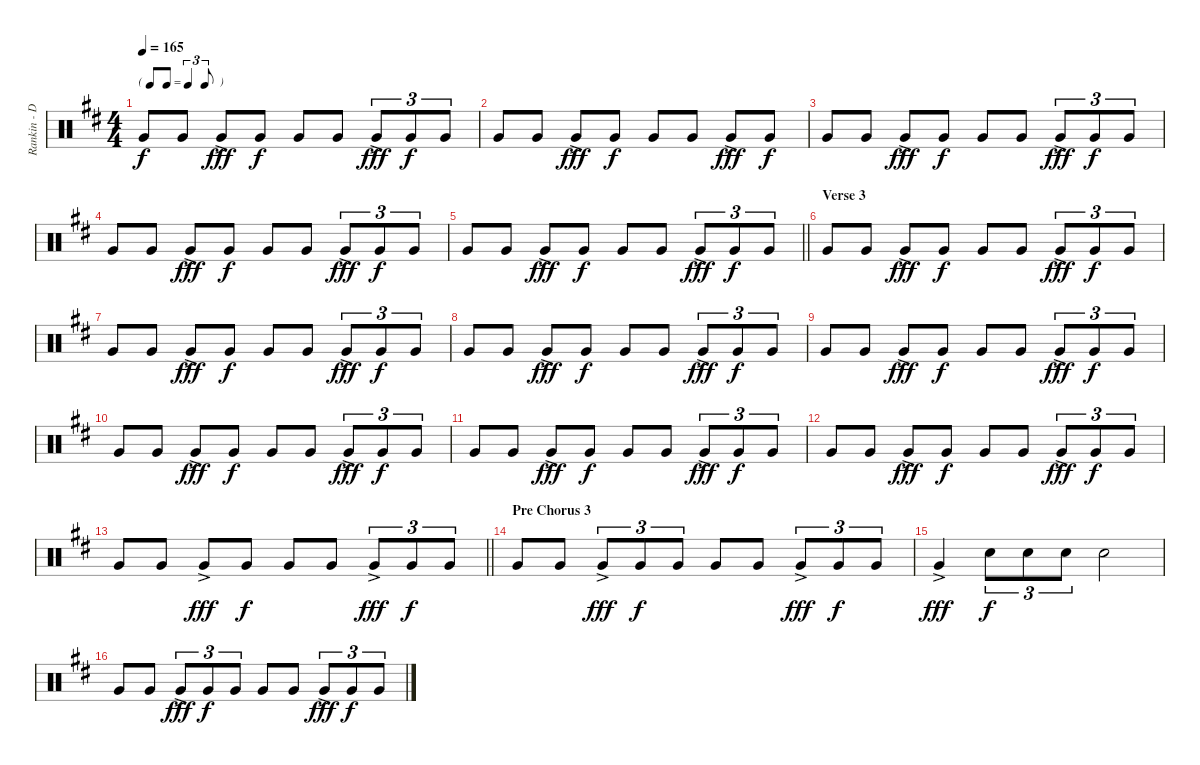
\track ("Rankin - Drums" "Rankin - D") {instrument percussion}
\staff {score}
\articulation defaults
\ts (4 4)
\tf triplet8th
\tempo 165
\clef neutral
\ks d "Very Low Tom (hit)".8{dy f} "Very Low Tom (hit)".8 "Very Low Tom (hit)"{ac}.8{dy fff} "Very Low Tom (hit)".8{dy f} "Very Low Tom (hit)".8 "Very Low Tom (hit)".8 "Very Low Tom (hit)"{ac}.8{tu (3 2) dy fff} "Very Low Tom (hit)".8{tu (3 2) dy f} "Very Low Tom (hit)".8{tu (3 2)}
|
"Very Low Tom (hit)".8 "Very Low Tom (hit)".8 "Very Low Tom (hit)"{ac}.8{dy fff} "Very Low Tom (hit)".8{dy f} "Very Low Tom (hit)".8 "Very Low Tom (hit)".8 "Very Low Tom (hit)"{ac}.8{dy fff} "Very Low Tom (hit)".8{dy f} |
"Very Low Tom (hit)".8 "Very Low Tom (hit)".8 "Very Low Tom (hit)"{ac}.8{dy fff} "Very Low Tom (hit)".8{dy f} "Very Low Tom (hit)".8 "Very Low Tom (hit)".8 "Very Low Tom (hit)"{ac}.8{tu (3 2) dy fff} "Very Low Tom (hit)".8{tu (3 2) dy f} "Very Low Tom (hit)".8{tu (3 2)} |
"Very Low Tom (hit)".8 "Very Low Tom (hit)".8 "Very Low Tom (hit)"{ac}.8{dy fff} "Very Low Tom (hit)".8{dy f} "Very Low Tom (hit)".8 "Very Low Tom (hit)".8 "Very Low Tom (hit)"{ac}.8{tu (3 2) dy fff} "Very Low Tom (hit)".8{tu (3 2) dy f} "Very Low Tom (hit)".8{tu (3 2)} |
\barLineRight lightlight "Very Low Tom (hit)".8 "Very Low Tom (hit)".8 "Very Low Tom (hit)"{ac}.8{dy fff} "Very Low Tom (hit)".8{dy f} "Very Low Tom (hit)".8 "Very Low Tom (hit)".8 "Very Low Tom (hit)"{ac}.8{tu (3 2) dy fff} "Very Low Tom (hit)".8{tu (3 2) dy f} "Very Low Tom (hit)".8{tu (3 2)}
|
\section ("" "Verse 3")
"Very Low Tom (hit)".8 "Very Low Tom (hit)".8 "Very Low Tom (hit)"{ac}.8{dy fff} "Very Low Tom (hit)".8{dy f} "Very Low Tom (hit)".8 "Very Low Tom (hit)".8 "Very Low Tom (hit)"{ac}.8{tu (3 2) dy fff} "Very Low Tom (hit)".8{tu (3 2) dy f} "Very Low Tom (hit)".8{tu (3 2)} |
"Very Low Tom (hit)".8 "Very Low Tom (hit)".8 "Very Low Tom (hit)"{ac}.8{dy fff} "Very Low Tom (hit)".8{dy f} "Very Low Tom (hit)".8 "Very Low Tom (hit)".8 "Very Low Tom (hit)"{ac}.8{tu (3 2) dy fff} "Very Low Tom (hit)".8{tu (3 2) dy f} "Very Low Tom (hit)".8{tu (3 2)} |
"Very Low Tom (hit)".8 "Very Low Tom (hit)".8 "Very Low Tom (hit)"{ac}.8{dy fff} "Very Low Tom (hit)".8{dy f} "Very Low Tom (hit)".8 "Very Low Tom (hit)".8 "Very Low Tom (hit)"{ac}.8{tu (3 2) dy fff} "Very Low Tom (hit)".8{tu (3 2) dy f} "Very Low Tom (hit)".8{tu (3 2)} |
"Very Low Tom (hit)".8 "Very Low Tom (hit)".8 "Very Low Tom (hit)"{ac}.8{dy fff} "Very Low Tom (hit)".8{dy f} "Very Low Tom (hit)".8 "Very Low Tom (hit)".8 "Very Low Tom (hit)"{ac}.8{tu (3 2) dy fff} "Very Low Tom (hit)".8{tu (3 2) dy f} "Very Low Tom (hit)".8{tu (3 2)} |
"Very Low Tom (hit)".8 "Very Low Tom (hit)".8 "Very Low Tom (hit)"{ac}.8{dy fff} "Very Low Tom (hit)".8{dy f} "Very Low Tom (hit)".8 "Very Low Tom (hit)".8 "Very Low Tom (hit)"{ac}.8{tu (3 2) dy fff} "Very Low Tom (hit)".8{tu (3 2) dy f} "Very Low Tom (hit)".8{tu (3 2)} |
"Very Low Tom (hit)".8 "Very Low Tom (hit)".8 "Very Low Tom (hit)"{ac}.8{dy fff} "Very Low Tom (hit)".8{dy f} "Very Low Tom (hit)".8 "Very Low Tom (hit)".8 "Very Low Tom (hit)"{ac}.8{tu (3 2) dy fff} "Very Low Tom (hit)".8{tu (3 2) dy f} "Very Low Tom (hit)".8{tu (3 2)} |
"Very Low Tom (hit)".8 "Very Low Tom (hit)".8 "Very Low Tom (hit)"{ac}.8{dy fff} "Very Low Tom (hit)".8{dy f} "Very Low Tom (hit)".8 "Very Low Tom (hit)".8 "Very Low Tom (hit)"{ac}.8{tu (3 2) dy fff} "Very Low Tom (hit)".8{tu (3 2) dy f} "Very Low Tom (hit)".8{tu (3 2)} |
\barLineRight lightlight "Very Low Tom (hit)".8 "Very Low Tom (hit)".8 "Very Low Tom (hit)"{ac}.8{dy fff} "Very Low Tom (hit)".8{dy f} "Very Low Tom (hit)".8 "Very Low Tom (hit)".8 "Very Low Tom (hit)"{ac}.8{tu (3 2) dy fff} "Very Low Tom (hit)".8{tu (3 2) dy f} "Very Low Tom (hit)".8{tu (3 2)}
|
\section ("" "Pre Chorus 3")
"Very Low Tom (hit)".8 "Very Low Tom (hit)".8 "Very Low Tom (hit)"{ac}.8{tu (3 2) dy fff} "Very Low Tom (hit)".8{tu (3 2) dy f} "Very Low Tom (hit)".8{tu (3 2)} "Very Low Tom (hit)".8 "Very Low Tom (hit)".8 "Very Low Tom (hit)"{ac}.8{tu (3 2) dy fff} "Very Low Tom (hit)".8{tu (3 2) dy f} "Very Low Tom (hit)".8{tu (3 2)} |
"Very Low Tom (hit)"{ac}.4{dy fff} "Electric Snare (hit)".8{tu (3 2) dy f} "Electric Snare (hit)".8{tu (3 2)} "Electric Snare (hit)".8{tu (3 2)} "Electric Snare (hit)".2 |
"Very Low Tom (hit)".8 "Very Low Tom (hit)".8 "Very Low Tom (hit)"{ac}.8{tu (3 2) dy fff} "Very Low Tom (hit)".8{tu (3 2) dy f} "Very Low Tom (hit)".8{tu (3 2)} "Very Low Tom (hit)".8 "Very Low Tom (hit)".8 "Very Low Tom (hit)"{ac}.8{tu (3 2) dy fff} "Very Low Tom (hit)".8{tu (3 2) dy f} "Very Low Tom (hit)".8{tu (3 2)}
